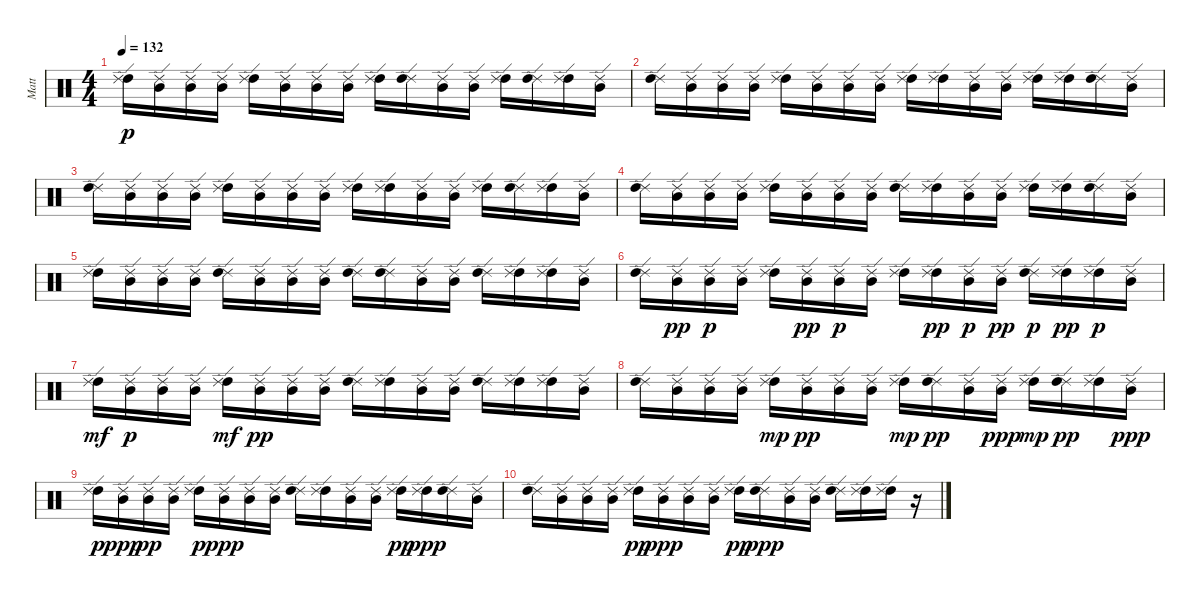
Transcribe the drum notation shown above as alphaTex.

\track ("Matt" "Matt") {instrument percussion}
\staff {score}
\articulation defaults
\ts (4 4)
\tempo 132
\clef neutral
\ks c
("High Tom (hit)" "Ride (edge) 2").16{dy p} ("Mid Tom (hit)" "Ride (edge) 2").16 ("Ride (edge) 2" "Mid Tom (hit)").16 ("Mid Tom (hit)" "Ride (edge) 2").16 ("High Tom (hit)" "Ride (edge) 2").16 ("Ride (edge) 2" "Mid Tom (hit)").16 ("Ride (edge) 2" "Mid Tom (hit)").16 ("Mid Tom (hit)" "Ride (edge) 2").16 ("High Tom (hit)" "Ride (edge) 2").16 ("Ride (edge) 2" "High Tom (hit)").16 ("Ride (edge) 2" "Mid Tom (hit)").16 ("Ride (edge) 2" "Mid Tom (hit)").16 ("High Tom (hit)" "Ride (edge) 2").16 ("Ride (edge) 2" "High Tom (hit)").16 ("High Tom (hit)" "Ride (edge) 2").16 ("Ride (edge) 2" "Mid Tom (hit)").16 |
("Ride (edge) 2" "High Tom (hit)").16 ("Ride (edge) 2" "Mid Tom (hit)").16 ("Mid Tom (hit)" "Ride (edge) 2").16 ("Mid Tom (hit)" "Ride (edge) 2").16 ("High Tom (hit)" "Ride (edge) 2").16 ("Ride (edge) 2" "Mid Tom (hit)").16 ("Ride (edge) 2" "Mid Tom (hit)").16 ("Ride (edge) 2" "Mid Tom (hit)").16 ("High Tom (hit)" "Ride (edge) 2").16 ("High Tom (hit)" "Ride (edge) 2").16 ("Mid Tom (hit)" "Ride (edge) 2").16 ("Mid Tom (hit)" "Ride (edge) 2").16 ("High Tom (hit)" "Ride (edge) 2").16 ("High Tom (hit)" "Ride (edge) 2").16 ("Ride (edge) 2" "High Tom (hit)").16 ("Ride (edge) 2" "Mid Tom (hit)").16 |
("Ride (edge) 2" "High Tom (hit)").16 ("Mid Tom (hit)" "Ride (edge) 2").16 ("Ride (edge) 2" "Mid Tom (hit)").16 ("Ride (edge) 2" "Mid Tom (hit)").16 ("High Tom (hit)" "Ride (edge) 2").16 ("Mid Tom (hit)" "Ride (edge) 2").16 ("Mid Tom (hit)" "Ride (edge) 2").16 ("Ride (edge) 2" "Mid Tom (hit)").16 ("High Tom (hit)" "Ride (edge) 2").16 ("High Tom (hit)" "Ride (edge) 2").16 ("Ride (edge) 2" "Mid Tom (hit)").16 ("Ride (edge) 2" "Mid Tom (hit)").16 ("High Tom (hit)" "Ride (edge) 2").16 ("Ride (edge) 2" "High Tom (hit)").16 ("High Tom (hit)" "Ride (edge) 2").16 ("Ride (edge) 2" "Mid Tom (hit)").16 |
("Ride (edge) 2" "High Tom (hit)").16 ("Ride (edge) 2" "Mid Tom (hit)").16 ("Mid Tom (hit)" "Ride (edge) 2").16 ("Ride (edge) 2" "Mid Tom (hit)").16 ("High Tom (hit)" "Ride (edge) 2").16 ("Mid Tom (hit)" "Ride (edge) 2").16 ("Mid Tom (hit)" "Ride (edge) 2").16 ("Ride (edge) 2" "Mid Tom (hit)").16 ("Ride (edge) 2" "High Tom (hit)").16 ("High Tom (hit)" "Ride (edge) 2").16 ("Mid Tom (hit)" "Ride (edge) 2").16 ("Mid Tom (hit)" "Ride (edge) 2").16 ("High Tom (hit)" "Ride (edge) 2").16 ("High Tom (hit)" "Ride (edge) 2").16 ("Ride (edge) 2" "High Tom (hit)").16 ("Mid Tom (hit)" "Ride (edge) 2").16 |
("High Tom (hit)" "Ride (edge) 2").16 ("Ride (edge) 2" "Mid Tom (hit)").16 ("Mid Tom (hit)" "Ride (edge) 2").16 ("Mid Tom (hit)" "Ride (edge) 2").16 ("Ride (edge) 2" "High Tom (hit)").16 ("Ride (edge) 2" "Mid Tom (hit)").16 ("Ride (edge) 2" "Mid Tom (hit)").16 ("Mid Tom (hit)" "Ride (edge) 2").16 ("Ride (edge) 2" "High Tom (hit)").16 ("Ride (edge) 2" "High Tom (hit)").16 ("Mid Tom (hit)" "Ride (edge) 2").16 ("Mid Tom (hit)" "Ride (edge) 2").16 ("Ride (edge) 2" "High Tom (hit)").16 ("High Tom (hit)" "Ride (edge) 2").16 ("High Tom (hit)" "Ride (edge) 2").16 ("Ride (edge) 2" "Mid Tom (hit)").16 |
("Ride (edge) 2" "High Tom (hit)").16 ("Mid Tom (hit)" "Ride (edge) 2").16{dy pp} ("Ride (edge) 2" "Mid Tom (hit)").16{dy p} ("Ride (edge) 2" "Mid Tom (hit)").16 ("High Tom (hit)" "Ride (edge) 2").16 ("Mid Tom (hit)" "Ride (edge) 2").16{dy pp} ("Ride (edge) 2" "Mid Tom (hit)").16{dy p} ("Ride (edge) 2" "Mid Tom (hit)").16 ("High Tom (hit)" "Ride (edge) 2").16 ("High Tom (hit)" "Ride (edge) 2").16{dy pp} ("Ride (edge) 2" "Mid Tom (hit)").16{dy p} ("Mid Tom (hit)" "Ride (edge) 2").16{dy pp} ("Ride (edge) 2" "High Tom (hit)").16{dy p} ("High Tom (hit)" "Ride (edge) 2").16{dy pp} ("High Tom (hit)" "Ride (edge) 2").16{dy p} ("Ride (edge) 2" "Mid Tom (hit)").16 |
("High Tom (hit)" "Ride (edge) 2").16{dy mf} ("Ride (edge) 2" "Mid Tom (hit)").16{dy p} ("Ride (edge) 2" "Mid Tom (hit)").16 ("Ride (edge) 2" "Mid Tom (hit)").16 ("High Tom (hit)" "Ride (edge) 2").16{dy mf} ("Ride (edge) 2" "Mid Tom (hit)").16{dy pp} ("Ride (edge) 2" "Mid Tom (hit)").16 ("Ride (edge) 2" "Mid Tom (hit)").16 ("Ride (edge) 2" "High Tom (hit)").16 ("High Tom (hit)" "Ride (edge) 2").16 ("Ride (edge) 2" "Mid Tom (hit)").16 ("Mid Tom (hit)" "Ride (edge) 2").16 ("Ride (edge) 2" "High Tom (hit)").16 ("High Tom (hit)" "Ride (edge) 2").16 ("High Tom (hit)" "Ride (edge) 2").16 ("Ride (edge) 2" "Mid Tom (hit)").16 |
("Ride (edge) 2" "High Tom (hit)").16 ("Mid Tom (hit)" "Ride (edge) 2").16 ("Ride (edge) 2" "Mid Tom (hit)").16 ("Mid Tom (hit)" "Ride (edge) 2").16 ("High Tom (hit)" "Ride (edge) 2").16{dy mp} ("Ride (edge) 2" "Mid Tom (hit)").16{dy pp} ("Ride (edge) 2" "Mid Tom (hit)").16 ("Ride (edge) 2" "Mid Tom (hit)").16 ("High Tom (hit)" "Ride (edge) 2").16{dy mp} ("Ride (edge) 2" "High Tom (hit)").16{dy pp} ("Mid Tom (hit)" "Ride (edge) 2").16 ("Mid Tom (hit)" "Ride (edge) 2").16{dy ppp} ("High Tom (hit)" "Ride (edge) 2").16{dy mp} ("Ride (edge) 2" "High Tom (hit)").16{dy pp} ("High Tom (hit)" "Ride (edge) 2").16 ("Mid Tom (hit)" "Ride (edge) 2").16{dy ppp} |
("High Tom (hit)" "Ride (edge) 2").16{dy p} ("Mid Tom (hit)" "Ride (edge) 2").16{dy ppp} ("Mid Tom (hit)" "Ride (edge) 2").16{dy pp} ("Ride (edge) 2" "Mid Tom (hit)").16 ("High Tom (hit)" "Ride (edge) 2").16{dy p} ("Mid Tom (hit)" "Ride (edge) 2").16{dy ppp} ("Mid Tom (hit)" "Ride (edge) 2").16 ("Mid Tom (hit)" "Ride (edge) 2").16 ("Ride (edge) 2" "High Tom (hit)").16 ("High Tom (hit)" "Ride (edge) 2").16 ("Mid Tom (hit)" "Ride (edge) 2").16 ("Ride (edge) 2" "Mid Tom (hit)").16 ("High Tom (hit)" "Ride (edge) 2").16{dy pp} ("High Tom (hit)" "Ride (edge) 2").16{dy ppp} ("Ride (edge) 2" "High Tom (hit)").16 ("Ride (edge) 2" "Mid Tom (hit)").16 |
("Ride (edge) 2" "High Tom (hit)").16 ("Mid Tom (hit)" "Ride (edge) 2").16 ("Ride (edge) 2" "Mid Tom (hit)").16 ("Mid Tom (hit)" "Ride (edge) 2").16 ("High Tom (hit)" "Ride (edge) 2").16{dy pp} ("Ride (edge) 2" "Mid Tom (hit)").16{dy ppp} ("Ride (edge) 2" "Mid Tom (hit)").16 ("Mid Tom (hit)" "Ride (edge) 2").16 ("High Tom (hit)" "Ride (edge) 2").16{dy pp} ("Ride (edge) 2" "High Tom (hit)").16{dy ppp} ("Ride (edge) 2" "Mid Tom (hit)").16 ("Mid Tom (hit)" "Ride (edge) 2").16 ("Ride (edge) 2" "High Tom (hit)").16 ("High Tom (hit)" "Ride (edge) 2").16 ("High Tom (hit)" "Ride (edge) 2").16 r.16
